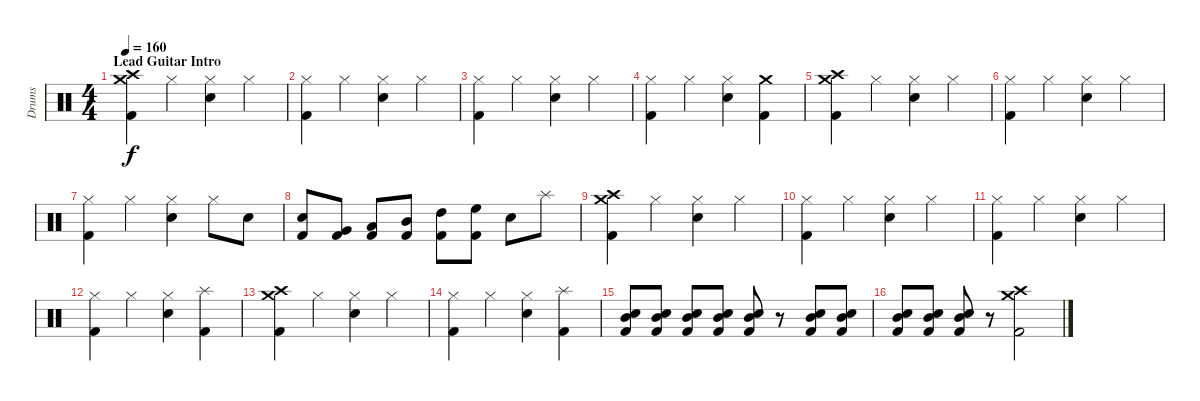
\track ("Drums" "Drums") {instrument percussion}
\staff {score}
\articulation defaults
\ts (4 4)
\section ("" "Lead Guitar Intro")
\tempo 160
\clef neutral
\ks c
("Kick (hit) 2" "Crash high (hit)" "Crash medium (hit)").4{dy f} "Hi-Hat (closed)".4 ("Hi-Hat (closed)" "Electric Snare (hit)").4 "Hi-Hat (closed)".4 |
("Kick (hit) 2" "Hi-Hat (closed)").4 "Hi-Hat (closed)".4 ("Hi-Hat (closed)" "Electric Snare (hit)").4 "Hi-Hat (closed)".4 |
("Kick (hit) 2" "Hi-Hat (closed)").4 "Hi-Hat (closed)".4 ("Hi-Hat (closed)" "Electric Snare (hit)").4 "Hi-Hat (closed)".4 |
("Kick (hit) 2" "Hi-Hat (closed)").4 "Hi-Hat (closed)".4 ("Hi-Hat (closed)" "Electric Snare (hit)").4 ("Kick (hit) 2" "Crash medium (hit)").4 |
("Kick (hit) 2" "Crash high (hit)" "Crash medium (hit)").4 "Hi-Hat (closed)".4 ("Hi-Hat (closed)" "Electric Snare (hit)").4 "Hi-Hat (closed)".4 |
("Kick (hit) 2" "Hi-Hat (closed)").4 "Hi-Hat (closed)".4 ("Hi-Hat (closed)" "Electric Snare (hit)").4 "Hi-Hat (closed)".4 |
("Kick (hit) 2" "Hi-Hat (closed)").4 "Hi-Hat (closed)".4 ("Hi-Hat (closed)" "Electric Snare (hit)").4 "Hi-Hat (closed)".8 "Electric Snare (hit)".8 |
("Kick (hit) 2" "Electric Snare (hit)").8 ("Kick (hit) 2" "Very Low Tom (hit)").8 ("Kick (hit) 2" "Low Tom (hit)").8 ("Kick (hit) 2" "Mid Tom (hit)").8 ("Kick (hit) 2" "High Tom (hit)").8 ("Kick (hit) 2" "High Floor Tom (hit)").8 "Electric Snare (hit)".8 "Splash (hit)".8 |
("Kick (hit) 2" "Crash high (hit)" "Crash medium (hit)").4 "Hi-Hat (closed)".4 ("Hi-Hat (closed)" "Electric Snare (hit)").4 "Hi-Hat (closed)".4 |
("Kick (hit) 2" "Hi-Hat (closed)").4 "Hi-Hat (closed)".4 ("Hi-Hat (closed)" "Electric Snare (hit)").4 "Hi-Hat (closed)".4 |
("Kick (hit) 2" "Hi-Hat (closed)").4 "Hi-Hat (closed)".4 ("Hi-Hat (closed)" "Electric Snare (hit)").4 "Hi-Hat (closed)".4 |
("Kick (hit) 2" "Hi-Hat (closed)").4 "Hi-Hat (closed)".4 ("Hi-Hat (closed)" "Electric Snare (hit)").4 ("Kick (hit) 2" "Splash (hit)").4 |
("Kick (hit) 2" "Crash high (hit)" "Crash medium (hit)").4 "Hi-Hat (closed)".4 ("Hi-Hat (closed)" "Electric Snare (hit)").4 "Hi-Hat (closed)".4 |
("Kick (hit) 2" "Hi-Hat (closed)").4 "Hi-Hat (closed)".4 ("Hi-Hat (closed)" "Electric Snare (hit)").4 ("Kick (hit) 2" "Splash (hit)").4 |
("Kick (hit) 2" "Electric Snare (hit)" "Mid Tom (hit)").8 ("Kick (hit) 2" "Electric Snare (hit)" "Mid Tom (hit)").8 ("Kick (hit) 2" "Electric Snare (hit)" "Mid Tom (hit)").8 ("Kick (hit) 2" "Electric Snare (hit)" "Mid Tom (hit)").8 ("Kick (hit) 2" "Electric Snare (hit)" "Mid Tom (hit)").8 r.8 ("Kick (hit) 2" "Electric Snare (hit)" "Mid Tom (hit)").8 ("Kick (hit) 2" "Electric Snare (hit)" "Mid Tom (hit)").8 |
("Kick (hit) 2" "Electric Snare (hit)" "Mid Tom (hit)").8 ("Kick (hit) 2" "Electric Snare (hit)" "Mid Tom (hit)").8 ("Kick (hit) 2" "Electric Snare (hit)" "Mid Tom (hit)").8 r.8 ("Kick (hit) 2" "Crash high (hit)" "Crash medium (hit)").2
